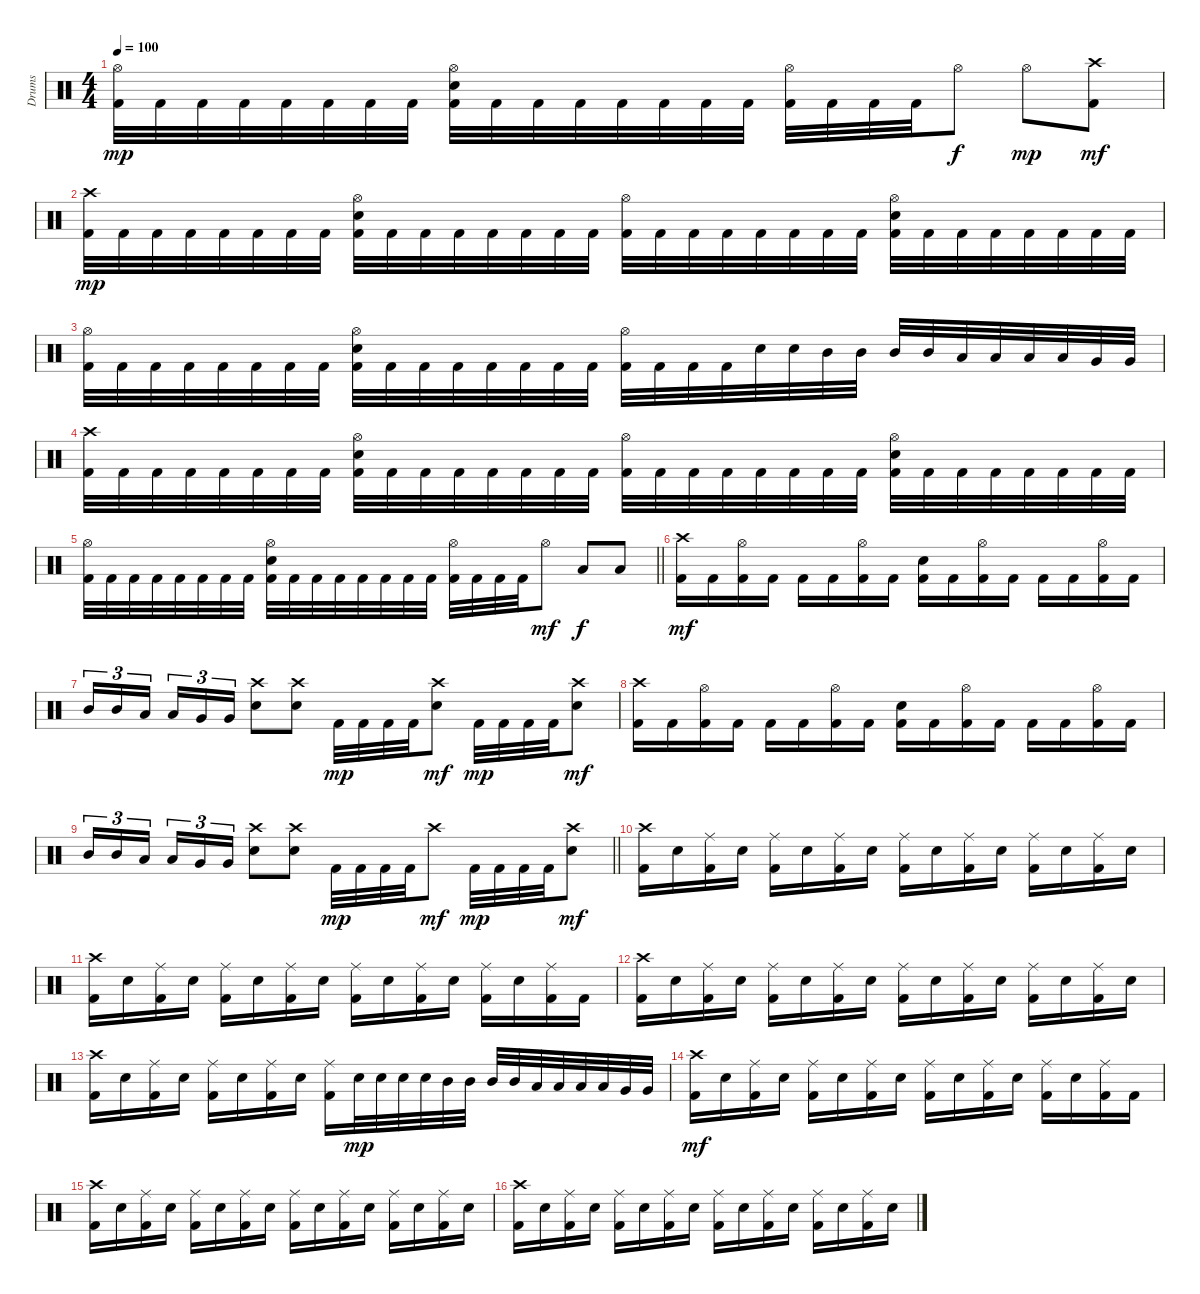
\track ("Drums" "Drums") {instrument percussion}
\staff {score}
\articulation defaults
\ts (4 4)
\tempo 100
\clef neutral
\ks c
("Hi-Hat (open)" "Kick (hit) 2").32{dy mp} "Kick (hit) 2".32 "Kick (hit) 2".32 "Kick (hit) 2".32 "Kick (hit) 2".32 "Kick (hit) 2".32 "Kick (hit) 2".32 "Kick (hit) 2".32 ("Hi-Hat (open)" "Snare (hit) 2" "Kick (hit) 2").32 "Kick (hit) 2".32 "Kick (hit) 2".32 "Kick (hit) 2".32 "Kick (hit) 2".32 "Kick (hit) 2".32 "Kick (hit) 2".32 "Kick (hit) 2".32 ("Hi-Hat (open)" "Kick (hit) 2").32 "Kick (hit) 2".32 "Kick (hit) 2".32 "Kick (hit) 2".32 "Hi-Hat (open)".8{dy f} "Hi-Hat (open)".8{dy mp} ("Crash high (hit)" "Kick (hit) 2").8{dy mf} |
("Crash high (hit)" "Kick (hit) 2").32{dy mp} "Kick (hit) 2".32 "Kick (hit) 2".32 "Kick (hit) 2".32 "Kick (hit) 2".32 "Kick (hit) 2".32 "Kick (hit) 2".32 "Kick (hit) 2".32 ("Hi-Hat (open)" "Snare (hit) 2" "Kick (hit) 2").32 "Kick (hit) 2".32 "Kick (hit) 2".32 "Kick (hit) 2".32 "Kick (hit) 2".32 "Kick (hit) 2".32 "Kick (hit) 2".32 "Kick (hit) 2".32 ("Hi-Hat (open)" "Kick (hit) 2").32 "Kick (hit) 2".32 "Kick (hit) 2".32 "Kick (hit) 2".32 "Kick (hit) 2".32 "Kick (hit) 2".32 "Kick (hit) 2".32 "Kick (hit) 2".32 ("Hi-Hat (open)" "Snare (hit) 2" "Kick (hit) 2").32 "Kick (hit) 2".32 "Kick (hit) 2".32 "Kick (hit) 2".32 "Kick (hit) 2".32 "Kick (hit) 2".32 "Kick (hit) 2".32 "Kick (hit) 2".32 |
("Hi-Hat (open)" "Kick (hit) 2").32 "Kick (hit) 2".32 "Kick (hit) 2".32 "Kick (hit) 2".32 "Kick (hit) 2".32 "Kick (hit) 2".32 "Kick (hit) 2".32 "Kick (hit) 2".32 ("Hi-Hat (open)" "Snare (hit) 2" "Kick (hit) 2").32 "Kick (hit) 2".32 "Kick (hit) 2".32 "Kick (hit) 2".32 "Kick (hit) 2".32 "Kick (hit) 2".32 "Kick (hit) 2".32 "Kick (hit) 2".32 ("Hi-Hat (open)" "Kick (hit) 2").32 "Kick (hit) 2".32 "Kick (hit) 2".32 "Kick (hit) 2".32 "Snare (hit) 2".32 "Snare (hit) 2".32 "Mid Tom (hit)".32 "Mid Tom (hit)".32 "Mid Tom (hit)".32 "Mid Tom (hit)".32 "Low Tom (hit)".32 "Low Tom (hit)".32 "Low Tom (hit)".32 "Low Tom (hit)".32 "Very Low Tom (hit)".32 "Very Low Tom (hit)".32 |
("Crash high (hit)" "Kick (hit) 2").32 "Kick (hit) 2".32 "Kick (hit) 2".32 "Kick (hit) 2".32 "Kick (hit) 2".32 "Kick (hit) 2".32 "Kick (hit) 2".32 "Kick (hit) 2".32 ("Hi-Hat (open)" "Snare (hit) 2" "Kick (hit) 2").32 "Kick (hit) 2".32 "Kick (hit) 2".32 "Kick (hit) 2".32 "Kick (hit) 2".32 "Kick (hit) 2".32 "Kick (hit) 2".32 "Kick (hit) 2".32 ("Hi-Hat (open)" "Kick (hit) 2").32 "Kick (hit) 2".32 "Kick (hit) 2".32 "Kick (hit) 2".32 "Kick (hit) 2".32 "Kick (hit) 2".32 "Kick (hit) 2".32 "Kick (hit) 2".32 ("Hi-Hat (open)" "Snare (hit) 2" "Kick (hit) 2").32 "Kick (hit) 2".32 "Kick (hit) 2".32 "Kick (hit) 2".32 "Kick (hit) 2".32 "Kick (hit) 2".32 "Kick (hit) 2".32 "Kick (hit) 2".32 |
\barLineRight lightlight
("Hi-Hat (open)" "Kick (hit) 2").32 "Kick (hit) 2".32 "Kick (hit) 2".32 "Kick (hit) 2".32 "Kick (hit) 2".32 "Kick (hit) 2".32 "Kick (hit) 2".32 "Kick (hit) 2".32 ("Hi-Hat (open)" "Snare (hit) 2" "Kick (hit) 2").32 "Kick (hit) 2".32 "Kick (hit) 2".32 "Kick (hit) 2".32 "Kick (hit) 2".32 "Kick (hit) 2".32 "Kick (hit) 2".32 "Kick (hit) 2".32 ("Hi-Hat (open)" "Kick (hit) 2").32 "Kick (hit) 2".32 "Kick (hit) 2".32 "Kick (hit) 2".32 "Hi-Hat (open)".8{dy mf} "Low Floor Tom (hit)".8{dy f} "Low Floor Tom (hit)".8 |
("Crash high (hit)" "Kick (hit) 2").16{dy mf} "Kick (hit) 2".16 ("Hi-Hat (open)" "Kick (hit) 2").16 "Kick (hit) 2".16 "Kick (hit) 2".16 "Kick (hit) 2".16 ("Hi-Hat (open)" "Kick (hit) 2").16 "Kick (hit) 2".16 ("Snare (hit) 2" "Kick (hit) 2").16 "Kick (hit) 2".16 ("Hi-Hat (open)" "Kick (hit) 2").16 "Kick (hit) 2".16 "Kick (hit) 2".16 "Kick (hit) 2".16 ("Hi-Hat (open)" "Kick (hit) 2").16 "Kick (hit) 2".16 |
"Mid Tom (hit)".16{tu (3 2)} "Mid Tom (hit)".16{tu (3 2)} "Low Tom (hit)".16{tu (3 2) beam splitsecondary} "Low Tom (hit)".16{tu (3 2)} "Very Low Tom (hit)".16{tu (3 2)} "Very Low Tom (hit)".16{tu (3 2)} ("Crash high (hit)" "Snare (hit) 2").8 ("Crash high (hit)" "Snare (hit) 2").8 "Kick (hit) 2".32{dy mp} "Kick (hit) 2".32 "Kick (hit) 2".32 "Kick (hit) 2".32 ("Crash high (hit)" "Snare (hit) 2").8{dy mf} "Kick (hit) 2".32{dy mp} "Kick (hit) 2".32 "Kick (hit) 2".32 "Kick (hit) 2".32 ("Crash high (hit)" "Snare (hit) 2").8{dy mf} |
("Crash high (hit)" "Kick (hit) 2").16 "Kick (hit) 2".16 ("Hi-Hat (open)" "Kick (hit) 2").16 "Kick (hit) 2".16 "Kick (hit) 2".16 "Kick (hit) 2".16 ("Hi-Hat (open)" "Kick (hit) 2").16 "Kick (hit) 2".16 ("Snare (hit) 2" "Kick (hit) 2").16 "Kick (hit) 2".16 ("Hi-Hat (open)" "Kick (hit) 2").16 "Kick (hit) 2".16 "Kick (hit) 2".16 "Kick (hit) 2".16 ("Hi-Hat (open)" "Kick (hit) 2").16 "Kick (hit) 2".16 |
\barLineRight lightlight "Mid Tom (hit)".16{tu (3 2)} "Mid Tom (hit)".16{tu (3 2)} "Low Tom (hit)".16{tu (3 2) beam splitsecondary} "Low Tom (hit)".16{tu (3 2)} "Very Low Tom (hit)".16{tu (3 2)} "Very Low Tom (hit)".16{tu (3 2)}
("Crash high (hit)" "Snare (hit) 2").8 ("Crash high (hit)" "Snare (hit) 2").8 "Kick (hit) 2".32{dy mp} "Kick (hit) 2".32 "Kick (hit) 2".32 "Kick (hit) 2".32 "Crash high (hit)".8{dy mf} "Kick (hit) 2".32{dy mp} "Kick (hit) 2".32 "Kick (hit) 2".32 "Kick (hit) 2".32 ("Crash high (hit)" "Snare (hit) 2").8{dy mf} |
("Crash high (hit)" "Kick (hit) 2").16 "Snare (hit) 2".16 ("Ride (middle)" "Kick (hit) 2").16 "Snare (hit) 2".16 ("Ride (middle)" "Kick (hit) 2").16 "Snare (hit) 2".16 ("Ride (middle)" "Kick (hit) 2").16 "Snare (hit) 2".16 ("Ride (middle)" "Kick (hit) 2").16 "Snare (hit) 2".16 ("Ride (middle)" "Kick (hit) 2").16 "Snare (hit) 2".16 ("Ride (middle)" "Kick (hit) 2").16 "Snare (hit) 2".16 ("Ride (middle)" "Kick (hit) 2").16 "Snare (hit) 2".16 |
("Crash high (hit)" "Kick (hit) 2").16 "Snare (hit) 2".16 ("Ride (middle)" "Kick (hit) 2").16 "Snare (hit) 2".16 ("Ride (middle)" "Kick (hit) 2").16 "Snare (hit) 2".16 ("Ride (middle)" "Kick (hit) 2").16 "Snare (hit) 2".16 ("Ride (middle)" "Kick (hit) 2").16 "Snare (hit) 2".16 ("Ride (middle)" "Kick (hit) 2").16 "Snare (hit) 2".16 ("Ride (middle)" "Kick (hit) 2").16 "Snare (hit) 2".16 ("Ride (middle)" "Kick (hit) 2").16 "Kick (hit) 2".16 |
("Crash high (hit)" "Kick (hit) 2").16 "Snare (hit) 2".16 ("Ride (middle)" "Kick (hit) 2").16 "Snare (hit) 2".16 ("Ride (middle)" "Kick (hit) 2").16 "Snare (hit) 2".16 ("Ride (middle)" "Kick (hit) 2").16 "Snare (hit) 2".16 ("Ride (middle)" "Kick (hit) 2").16 "Snare (hit) 2".16 ("Ride (middle)" "Kick (hit) 2").16 "Snare (hit) 2".16 ("Ride (middle)" "Kick (hit) 2").16 "Snare (hit) 2".16 ("Ride (middle)" "Kick (hit) 2").16 "Snare (hit) 2".16 |
("Crash high (hit)" "Kick (hit) 2").16 "Snare (hit) 2".16 ("Ride (middle)" "Kick (hit) 2").16 "Snare (hit) 2".16 ("Ride (middle)" "Kick (hit) 2").16 "Snare (hit) 2".16 ("Ride (middle)" "Kick (hit) 2").16 "Snare (hit) 2".16 ("Ride (middle)" "Kick (hit) 2").16 "Snare (hit) 2".32{dy mp} "Snare (hit) 2".32 "Snare (hit) 2".32 "Snare (hit) 2".32 "Mid Tom (hit)".32 "Mid Tom (hit)".32 "Mid Tom (hit)".32 "Mid Tom (hit)".32 "Low Tom (hit)".32 "Low Tom (hit)".32 "Low Tom (hit)".32 "Low Tom (hit)".32 "Very Low Tom (hit)".32 "Very Low Tom (hit)".32 |
("Crash high (hit)" "Kick (hit) 2").16{dy mf} "Snare (hit) 2".16 ("Ride (middle)" "Kick (hit) 2").16 "Snare (hit) 2".16 ("Ride (middle)" "Kick (hit) 2").16 "Snare (hit) 2".16 ("Ride (middle)" "Kick (hit) 2").16 "Snare (hit) 2".16 ("Ride (middle)" "Kick (hit) 2").16 "Snare (hit) 2".16 ("Ride (middle)" "Kick (hit) 2").16 "Snare (hit) 2".16 ("Ride (middle)" "Kick (hit) 2").16 "Snare (hit) 2".16 ("Ride (middle)" "Kick (hit) 2").16 "Kick (hit) 2".16 |
("Crash high (hit)" "Kick (hit) 2").16 "Snare (hit) 2".16 ("Ride (middle)" "Kick (hit) 2").16 "Snare (hit) 2".16 ("Ride (middle)" "Kick (hit) 2").16 "Snare (hit) 2".16 ("Ride (middle)" "Kick (hit) 2").16 "Snare (hit) 2".16 ("Ride (middle)" "Kick (hit) 2").16 "Snare (hit) 2".16 ("Ride (middle)" "Kick (hit) 2").16 "Snare (hit) 2".16 ("Ride (middle)" "Kick (hit) 2").16 "Snare (hit) 2".16 ("Ride (middle)" "Kick (hit) 2").16 "Snare (hit) 2".16 |
("Crash high (hit)" "Kick (hit) 2").16 "Snare (hit) 2".16 ("Ride (middle)" "Kick (hit) 2").16 "Snare (hit) 2".16 ("Ride (middle)" "Kick (hit) 2").16 "Snare (hit) 2".16 ("Ride (middle)" "Kick (hit) 2").16 "Snare (hit) 2".16 ("Ride (middle)" "Kick (hit) 2").16 "Snare (hit) 2".16 ("Ride (middle)" "Kick (hit) 2").16 "Snare (hit) 2".16 ("Ride (middle)" "Kick (hit) 2").16 "Snare (hit) 2".16 ("Ride (middle)" "Kick (hit) 2").16 "Snare (hit) 2".16
